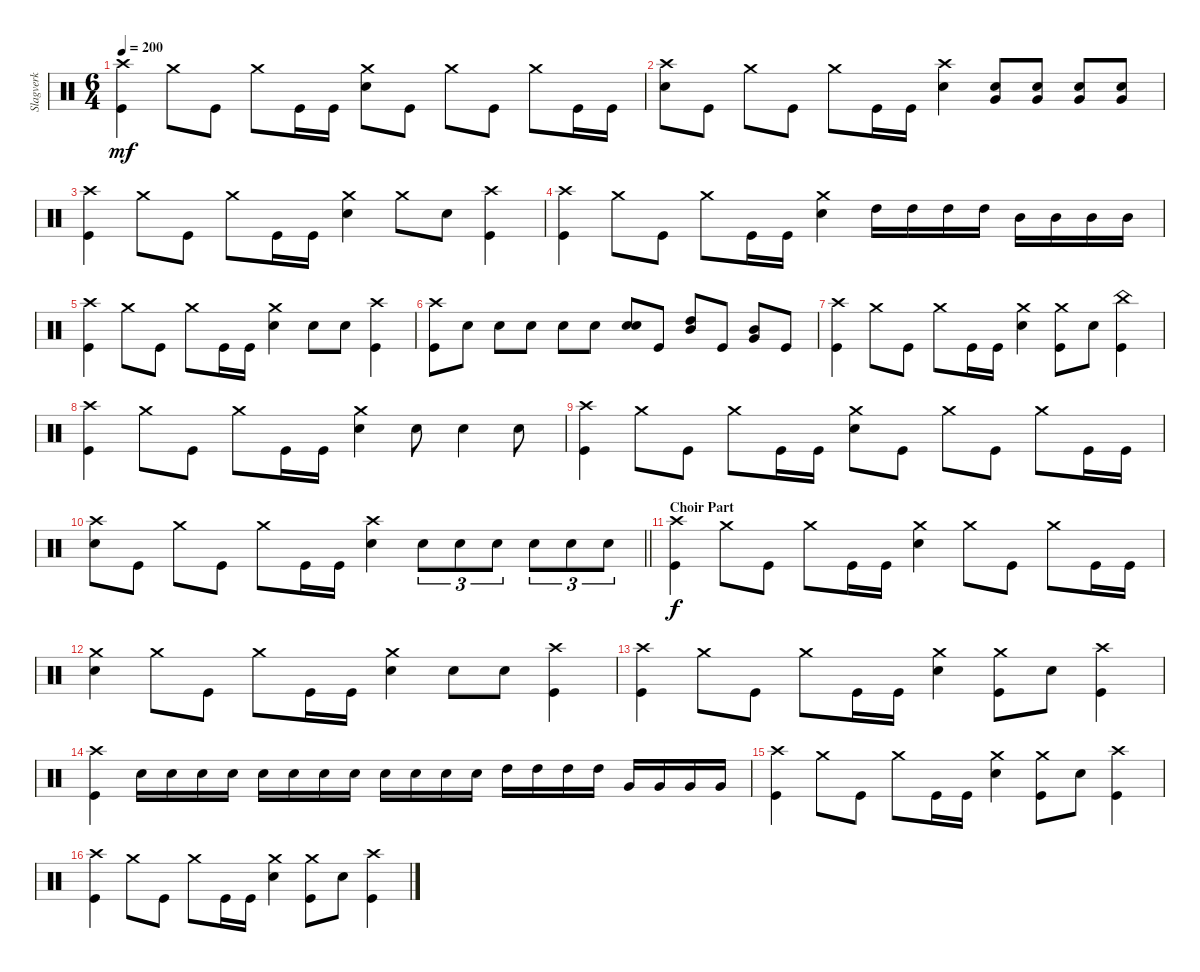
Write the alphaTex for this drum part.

\track ("Slagverk" "Slagverk") {instrument percussion}
\staff {score}
\articulation defaults
\ts (6 4)
\tempo 200
\clef neutral
\ks c
("Crash high (hit)" "Kick (hit)").4{dy mf} "Crash medium (hit)".8 "Kick (hit)".8 "Crash medium (hit)".8 "Kick (hit)".16 "Kick (hit)".16 ("Crash medium (hit)" "Electric Snare (hit)").8 "Kick (hit)".8 "Crash medium (hit)".8 "Kick (hit)".8 "Crash medium (hit)".8 "Kick (hit)".16 "Kick (hit)".16 |
("Crash high (hit)" "Electric Snare (hit)").8 "Kick (hit)".8 "Crash medium (hit)".8 "Kick (hit)".8 "Crash medium (hit)".8 "Kick (hit)".16 "Kick (hit)".16 ("Crash high (hit)" "Electric Snare (hit)").4 ("Very Low Tom (hit)" "Electric Snare (hit)").8 ("Very Low Tom (hit)" "Electric Snare (hit)").8 ("Very Low Tom (hit)" "Electric Snare (hit)").8 ("Very Low Tom (hit)" "Electric Snare (hit)").8 |
("Crash high (hit)" "Kick (hit)").4 "Crash medium (hit)".8 "Kick (hit)".8 "Crash medium (hit)".8 "Kick (hit)".16 "Kick (hit)".16 ("Crash medium (hit)" "Electric Snare (hit)").4 "Crash medium (hit)".8 "Electric Snare (hit)".8 ("Crash high (hit)" "Kick (hit)").4 |
("Crash high (hit)" "Kick (hit)").4 "Crash medium (hit)".8 "Kick (hit)".8 "Crash medium (hit)".8 "Kick (hit)".16 "Kick (hit)".16 ("Crash medium (hit)" "Electric Snare (hit)").4 "High Tom (hit)".16 "High Tom (hit)".16 "High Tom (hit)".16 "High Tom (hit)".16 "Mid Tom (hit)".16 "Mid Tom (hit)".16 "Mid Tom (hit)".16 "Mid Tom (hit)".16 |
("Crash high (hit)" "Kick (hit)").4 "Crash medium (hit)".8 "Kick (hit)".8 "Crash medium (hit)".8 "Kick (hit)".16 "Kick (hit)".16 ("Crash medium (hit)" "Electric Snare (hit)").4 "Electric Snare (hit)".8 "Electric Snare (hit)".8 ("Crash high (hit)" "Kick (hit)").4 |
("Crash high (hit)" "Kick (hit)").8 "Electric Snare (hit)".8 "Electric Snare (hit)".8 "Electric Snare (hit)".8 "Electric Snare (hit)".8 "Electric Snare (hit)".8 ("Electric Snare (hit)" "Electric Snare (hit)").8 "Kick (hit)".8 ("Mid Tom (hit)" "High Tom (hit)").8 "Kick (hit)".8 ("Very Low Tom (hit)" "Mid Tom (hit)").8 "Kick (hit)".8 |
("Crash high (hit)" "Kick (hit)").4 "Crash medium (hit)".8 "Kick (hit)".8 "Crash medium (hit)".8 "Kick (hit)".16 "Kick (hit)".16 ("Crash medium (hit)" "Electric Snare (hit)").4 ("Crash medium (hit)" "Kick (hit)").8 "Electric Snare (hit)".8 ("China (hit)" "Kick (hit)").4 |
("Crash high (hit)" "Kick (hit)").4 "Crash medium (hit)".8 "Kick (hit)".8 "Crash medium (hit)".8 "Kick (hit)".16 "Kick (hit)".16 ("Crash medium (hit)" "Electric Snare (hit)").4 "Electric Snare (hit)".8 "Electric Snare (hit)".4 "Electric Snare (hit)".8 |
("Crash high (hit)" "Kick (hit)").4 "Crash medium (hit)".8 "Kick (hit)".8 "Crash medium (hit)".8 "Kick (hit)".16 "Kick (hit)".16 ("Crash medium (hit)" "Electric Snare (hit)").8 "Kick (hit)".8 "Crash medium (hit)".8 "Kick (hit)".8 "Crash medium (hit)".8 "Kick (hit)".16 "Kick (hit)".16 |
\barLineRight lightlight
("Crash high (hit)" "Electric Snare (hit)").8 "Kick (hit)".8 "Crash medium (hit)".8 "Kick (hit)".8 "Crash medium (hit)".8 "Kick (hit)".16 "Kick (hit)".16 ("Crash high (hit)" "Electric Snare (hit)").4 "Electric Snare (hit)".8{tu (3 2)} "Electric Snare (hit)".8{tu (3 2)} "Electric Snare (hit)".8{tu (3 2)} "Electric Snare (hit)".8{tu (3 2)} "Electric Snare (hit)".8{tu (3 2)} "Electric Snare (hit)".8{tu (3 2)} |
\section ("" "Choir Part")
("Crash high (hit)" "Kick (hit)").4{dy f} "Crash medium (hit)".8 "Kick (hit)".8 "Crash medium (hit)".8 "Kick (hit)".16 "Kick (hit)".16 ("Crash medium (hit)" "Electric Snare (hit)").4 "Crash medium (hit)".8 "Kick (hit)".8 "Crash medium (hit)".8 "Kick (hit)".16 "Kick (hit)".16 |
("Crash medium (hit)" "Electric Snare (hit)").4 "Crash medium (hit)".8 "Kick (hit)".8 "Crash medium (hit)".8 "Kick (hit)".16 "Kick (hit)".16 ("Crash medium (hit)" "Electric Snare (hit)").4 "Electric Snare (hit)".8 "Electric Snare (hit)".8 ("Crash high (hit)" "Kick (hit)").4 |
("Crash high (hit)" "Kick (hit)").4 "Crash medium (hit)".8 "Kick (hit)".8 "Crash medium (hit)".8 "Kick (hit)".16 "Kick (hit)".16 ("Crash medium (hit)" "Electric Snare (hit)").4 ("Crash medium (hit)" "Kick (hit)").8 "Electric Snare (hit)".8 ("Crash high (hit)" "Kick (hit)").4 |
("Crash high (hit)" "Kick (hit)").4 "Electric Snare (hit)".16 "Electric Snare (hit)".16 "Electric Snare (hit)".16 "Electric Snare (hit)".16 "Electric Snare (hit)".16 "Electric Snare (hit)".16 "Electric Snare (hit)".16 "Electric Snare (hit)".16 "Electric Snare (hit)".16 "Electric Snare (hit)".16 "Electric Snare (hit)".16 "Electric Snare (hit)".16 "High Tom (hit)".16 "High Tom (hit)".16 "High Tom (hit)".16 "High Tom (hit)".16 "Very Low Tom (hit)".16 "Very Low Tom (hit)".16 "Very Low Tom (hit)".16 "Very Low Tom (hit)".16 |
("Crash high (hit)" "Kick (hit)").4 "Crash medium (hit)".8 "Kick (hit)".8 "Crash medium (hit)".8 "Kick (hit)".16 "Kick (hit)".16 ("Crash medium (hit)" "Electric Snare (hit)").4 ("Crash medium (hit)" "Kick (hit)").8 "Electric Snare (hit)".8 ("Crash high (hit)" "Kick (hit)").4 |
("Crash high (hit)" "Kick (hit)").4 "Crash medium (hit)".8 "Kick (hit)".8 "Crash medium (hit)".8 "Kick (hit)".16 "Kick (hit)".16 ("Crash medium (hit)" "Electric Snare (hit)").4 ("Crash medium (hit)" "Kick (hit)").8 "Electric Snare (hit)".8 ("Crash high (hit)" "Kick (hit)").4
